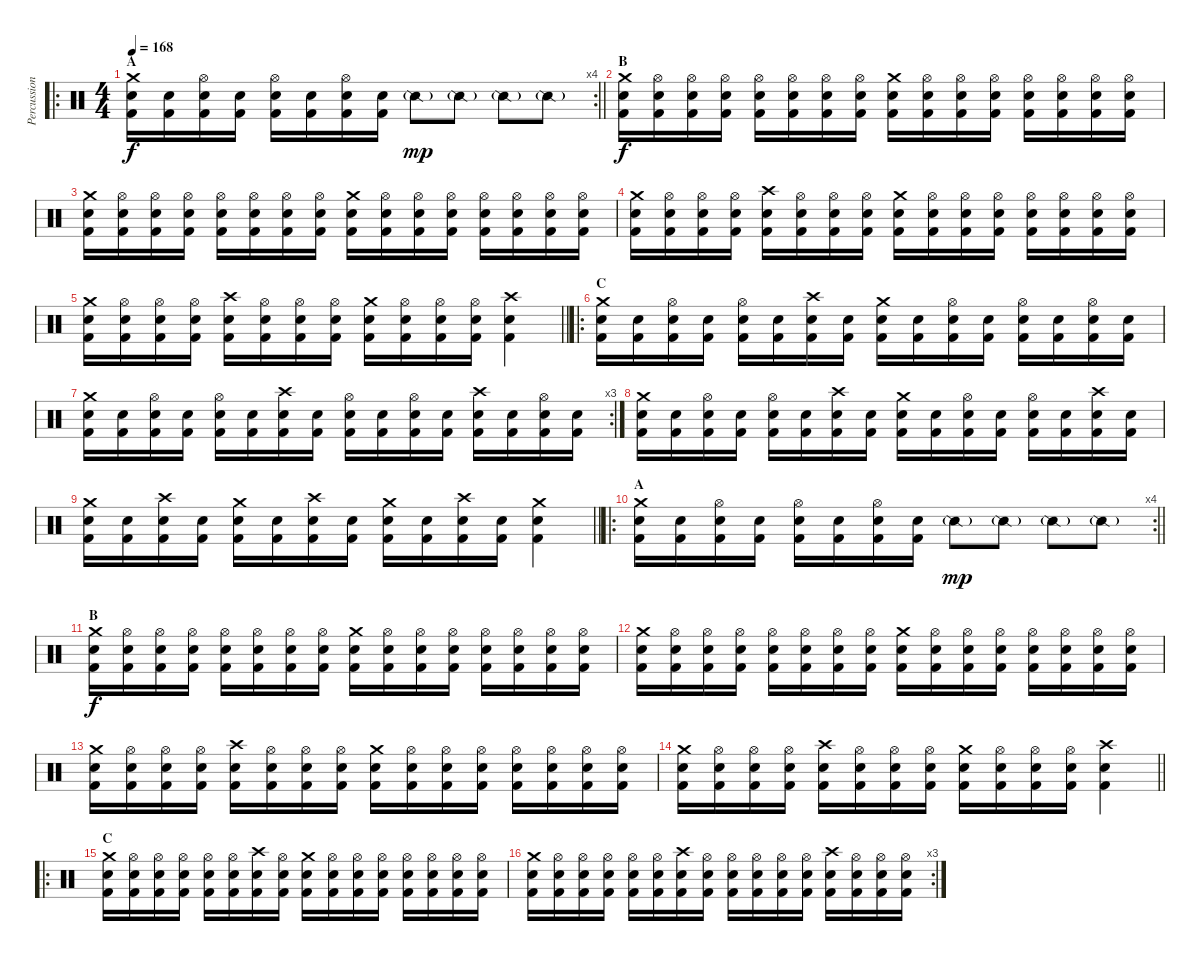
\track ("Percussion" "Percussion") {instrument percussion}
\staff {score}
\articulation defaults
\ro
\rc 4
\ts (4 4)
\section ("" "A")
\tempo 168
\clef neutral
\barLineRight lightlight
\ks c
("Kick (hit) 2" "Electric Snare (hit)" "Crash medium (hit)").16{dy f} ("Kick (hit) 2" "Electric Snare (hit)").16 ("Kick (hit) 2" "Electric Snare (hit)" "Hi-Hat (open)").16 ("Kick (hit) 2" "Electric Snare (hit)").16 ("Kick (hit) 2" "Electric Snare (hit)" "Hi-Hat (open)").16 ("Kick (hit) 2" "Electric Snare (hit)").16 ("Kick (hit) 2" "Electric Snare (hit)" "Hi-Hat (open)").16 ("Kick (hit) 2" "Electric Snare (hit)").16 "Snare (side stick) 2"{g}.8{dy mp} "Snare (side stick) 2"{g}.8 "Snare (side stick) 2"{g}.8 "Snare (side stick) 2"{g}.8 |
\section ("" "B")
("Kick (hit) 2" "Electric Snare (hit)" "Crash medium (hit)").16{dy f} ("Kick (hit) 2" "Electric Snare (hit)" "Hi-Hat (open)").16 ("Kick (hit) 2" "Electric Snare (hit)" "Hi-Hat (open)").16 ("Kick (hit) 2" "Electric Snare (hit)" "Hi-Hat (open)").16 ("Kick (hit) 2" "Electric Snare (hit)" "Hi-Hat (open)").16 ("Kick (hit) 2" "Electric Snare (hit)" "Hi-Hat (open)").16 ("Kick (hit) 2" "Electric Snare (hit)" "Hi-Hat (open)").16 ("Kick (hit) 2" "Electric Snare (hit)" "Hi-Hat (open)").16 ("Kick (hit) 2" "Electric Snare (hit)" "Crash medium (hit)").16 ("Kick (hit) 2" "Electric Snare (hit)" "Hi-Hat (open)").16 ("Kick (hit) 2" "Electric Snare (hit)" "Hi-Hat (open)").16 ("Kick (hit) 2" "Electric Snare (hit)" "Hi-Hat (open)").16 ("Kick (hit) 2" "Electric Snare (hit)" "Hi-Hat (open)").16 ("Kick (hit) 2" "Electric Snare (hit)" "Hi-Hat (open)").16 ("Kick (hit) 2" "Electric Snare (hit)" "Hi-Hat (open)").16 ("Kick (hit) 2" "Electric Snare (hit)" "Hi-Hat (open)").16 |
("Kick (hit) 2" "Electric Snare (hit)" "Crash medium (hit)").16 ("Kick (hit) 2" "Electric Snare (hit)" "Hi-Hat (open)").16 ("Kick (hit) 2" "Electric Snare (hit)" "Hi-Hat (open)").16 ("Kick (hit) 2" "Electric Snare (hit)" "Hi-Hat (open)").16 ("Kick (hit) 2" "Electric Snare (hit)" "Hi-Hat (open)").16 ("Kick (hit) 2" "Electric Snare (hit)" "Hi-Hat (open)").16 ("Kick (hit) 2" "Electric Snare (hit)" "Hi-Hat (open)").16 ("Kick (hit) 2" "Electric Snare (hit)" "Hi-Hat (open)").16 ("Kick (hit) 2" "Electric Snare (hit)" "Crash medium (hit)").16 ("Kick (hit) 2" "Electric Snare (hit)" "Hi-Hat (open)").16 ("Kick (hit) 2" "Electric Snare (hit)" "Hi-Hat (open)").16 ("Kick (hit) 2" "Electric Snare (hit)" "Hi-Hat (open)").16 ("Kick (hit) 2" "Electric Snare (hit)" "Hi-Hat (open)").16 ("Kick (hit) 2" "Electric Snare (hit)" "Hi-Hat (open)").16 ("Kick (hit) 2" "Electric Snare (hit)" "Hi-Hat (open)").16 ("Kick (hit) 2" "Electric Snare (hit)" "Hi-Hat (open)").16 |
("Kick (hit) 2" "Electric Snare (hit)" "Crash medium (hit)").16 ("Kick (hit) 2" "Electric Snare (hit)" "Hi-Hat (open)").16 ("Kick (hit) 2" "Electric Snare (hit)" "Hi-Hat (open)").16 ("Kick (hit) 2" "Electric Snare (hit)" "Hi-Hat (open)").16 ("Kick (hit) 2" "Electric Snare (hit)" "Crash high (hit)").16 ("Kick (hit) 2" "Electric Snare (hit)" "Hi-Hat (open)").16 ("Kick (hit) 2" "Electric Snare (hit)" "Hi-Hat (open)").16 ("Kick (hit) 2" "Electric Snare (hit)" "Hi-Hat (open)").16 ("Kick (hit) 2" "Electric Snare (hit)" "Crash medium (hit)").16 ("Kick (hit) 2" "Electric Snare (hit)" "Hi-Hat (open)").16 ("Kick (hit) 2" "Electric Snare (hit)" "Hi-Hat (open)").16 ("Kick (hit) 2" "Electric Snare (hit)" "Hi-Hat (open)").16 ("Kick (hit) 2" "Electric Snare (hit)" "Hi-Hat (open)").16 ("Kick (hit) 2" "Electric Snare (hit)" "Hi-Hat (open)").16 ("Kick (hit) 2" "Electric Snare (hit)" "Hi-Hat (open)").16 ("Kick (hit) 2" "Electric Snare (hit)" "Hi-Hat (open)").16 |
\barLineRight lightlight
("Kick (hit) 2" "Electric Snare (hit)" "Crash medium (hit)").16 ("Kick (hit) 2" "Electric Snare (hit)" "Hi-Hat (open)").16 ("Kick (hit) 2" "Electric Snare (hit)" "Hi-Hat (open)").16 ("Kick (hit) 2" "Electric Snare (hit)" "Hi-Hat (open)").16 ("Kick (hit) 2" "Electric Snare (hit)" "Crash high (hit)").16 ("Kick (hit) 2" "Electric Snare (hit)" "Hi-Hat (open)").16 ("Kick (hit) 2" "Electric Snare (hit)" "Hi-Hat (open)").16 ("Kick (hit) 2" "Electric Snare (hit)" "Hi-Hat (open)").16 ("Kick (hit) 2" "Electric Snare (hit)" "Crash medium (hit)").16 ("Kick (hit) 2" "Electric Snare (hit)" "Hi-Hat (open)").16 ("Kick (hit) 2" "Electric Snare (hit)" "Hi-Hat (open)").16 ("Kick (hit) 2" "Electric Snare (hit)" "Hi-Hat (open)").16 ("Kick (hit) 2" "Electric Snare (hit)" "Crash high (hit)").4 |
\ro
\section ("" "C")
("Kick (hit) 2" "Electric Snare (hit)" "Crash medium (hit)").16 ("Kick (hit) 2" "Electric Snare (hit)").16 ("Kick (hit) 2" "Electric Snare (hit)" "Hi-Hat (open)").16 ("Kick (hit) 2" "Electric Snare (hit)").16 ("Kick (hit) 2" "Electric Snare (hit)" "Hi-Hat (open)").16 ("Kick (hit) 2" "Electric Snare (hit)").16 ("Kick (hit) 2" "Electric Snare (hit)" "Crash high (hit)").16 ("Kick (hit) 2" "Electric Snare (hit)").16 ("Kick (hit) 2" "Electric Snare (hit)" "Crash medium (hit)").16 ("Kick (hit) 2" "Electric Snare (hit)").16 ("Kick (hit) 2" "Electric Snare (hit)" "Hi-Hat (open)").16 ("Kick (hit) 2" "Electric Snare (hit)").16 ("Kick (hit) 2" "Electric Snare (hit)" "Hi-Hat (open)").16 ("Kick (hit) 2" "Electric Snare (hit)").16 ("Kick (hit) 2" "Electric Snare (hit)" "Hi-Hat (open)").16 ("Kick (hit) 2" "Electric Snare (hit)").16 |
\rc 3
("Kick (hit) 2" "Electric Snare (hit)" "Crash medium (hit)").16 ("Kick (hit) 2" "Electric Snare (hit)").16 ("Kick (hit) 2" "Electric Snare (hit)" "Hi-Hat (open)").16 ("Kick (hit) 2" "Electric Snare (hit)").16 ("Kick (hit) 2" "Electric Snare (hit)" "Hi-Hat (open)").16 ("Kick (hit) 2" "Electric Snare (hit)").16 ("Kick (hit) 2" "Electric Snare (hit)" "Crash high (hit)").16 ("Kick (hit) 2" "Electric Snare (hit)").16 ("Kick (hit) 2" "Electric Snare (hit)" "Hi-Hat (open)").16 ("Kick (hit) 2" "Electric Snare (hit)").16 ("Kick (hit) 2" "Electric Snare (hit)" "Hi-Hat (open)").16 ("Kick (hit) 2" "Electric Snare (hit)").16 ("Kick (hit) 2" "Electric Snare (hit)" "Crash high (hit)").16 ("Kick (hit) 2" "Electric Snare (hit)").16 ("Kick (hit) 2" "Electric Snare (hit)" "Hi-Hat (open)").16 ("Kick (hit) 2" "Electric Snare (hit)").16 |
("Kick (hit) 2" "Electric Snare (hit)" "Crash medium (hit)").16 ("Kick (hit) 2" "Electric Snare (hit)").16 ("Kick (hit) 2" "Electric Snare (hit)" "Hi-Hat (open)").16 ("Kick (hit) 2" "Electric Snare (hit)").16 ("Kick (hit) 2" "Electric Snare (hit)" "Hi-Hat (open)").16 ("Kick (hit) 2" "Electric Snare (hit)").16 ("Kick (hit) 2" "Electric Snare (hit)" "Crash high (hit)").16 ("Kick (hit) 2" "Electric Snare (hit)").16 ("Kick (hit) 2" "Electric Snare (hit)" "Crash medium (hit)").16 ("Kick (hit) 2" "Electric Snare (hit)").16 ("Kick (hit) 2" "Electric Snare (hit)" "Hi-Hat (open)").16 ("Kick (hit) 2" "Electric Snare (hit)").16 ("Kick (hit) 2" "Electric Snare (hit)" "Hi-Hat (open)").16 ("Kick (hit) 2" "Electric Snare (hit)").16 ("Kick (hit) 2" "Electric Snare (hit)" "Crash high (hit)").16 ("Kick (hit) 2" "Electric Snare (hit)").16 |
\barLineRight lightlight
("Kick (hit) 2" "Electric Snare (hit)" "Crash medium (hit)").16 ("Kick (hit) 2" "Electric Snare (hit)").16 ("Kick (hit) 2" "Electric Snare (hit)" "Crash high (hit)").16 ("Kick (hit) 2" "Electric Snare (hit)").16 ("Kick (hit) 2" "Electric Snare (hit)" "Crash medium (hit)").16 ("Kick (hit) 2" "Electric Snare (hit)").16 ("Kick (hit) 2" "Electric Snare (hit)" "Crash high (hit)").16 ("Kick (hit) 2" "Electric Snare (hit)").16 ("Kick (hit) 2" "Electric Snare (hit)" "Crash medium (hit)").16 ("Kick (hit) 2" "Electric Snare (hit)").16 ("Kick (hit) 2" "Electric Snare (hit)" "Crash high (hit)").16 ("Kick (hit) 2" "Electric Snare (hit)").16 ("Kick (hit) 2" "Electric Snare (hit)" "Crash medium (hit)").4 |
\ro
\rc 4
\section ("" "A")
\barLineRight lightlight
("Kick (hit) 2" "Electric Snare (hit)" "Crash medium (hit)").16 ("Kick (hit) 2" "Electric Snare (hit)").16 ("Kick (hit) 2" "Electric Snare (hit)" "Hi-Hat (open)").16 ("Kick (hit) 2" "Electric Snare (hit)").16 ("Kick (hit) 2" "Electric Snare (hit)" "Hi-Hat (open)").16 ("Kick (hit) 2" "Electric Snare (hit)").16 ("Kick (hit) 2" "Electric Snare (hit)" "Hi-Hat (open)").16 ("Kick (hit) 2" "Electric Snare (hit)").16 "Snare (side stick) 2"{g}.8{dy mp} "Snare (side stick) 2"{g}.8 "Snare (side stick) 2"{g}.8 "Snare (side stick) 2"{g}.8 |
\section ("" "B")
("Kick (hit) 2" "Electric Snare (hit)" "Crash medium (hit)").16{dy f} ("Kick (hit) 2" "Electric Snare (hit)" "Hi-Hat (open)").16 ("Kick (hit) 2" "Electric Snare (hit)" "Hi-Hat (open)").16 ("Kick (hit) 2" "Electric Snare (hit)" "Hi-Hat (open)").16 ("Kick (hit) 2" "Electric Snare (hit)" "Hi-Hat (open)").16 ("Kick (hit) 2" "Electric Snare (hit)" "Hi-Hat (open)").16 ("Kick (hit) 2" "Electric Snare (hit)" "Hi-Hat (open)").16 ("Kick (hit) 2" "Electric Snare (hit)" "Hi-Hat (open)").16 ("Kick (hit) 2" "Electric Snare (hit)" "Crash medium (hit)").16 ("Kick (hit) 2" "Electric Snare (hit)" "Hi-Hat (open)").16 ("Kick (hit) 2" "Electric Snare (hit)" "Hi-Hat (open)").16 ("Kick (hit) 2" "Electric Snare (hit)" "Hi-Hat (open)").16 ("Kick (hit) 2" "Electric Snare (hit)" "Hi-Hat (open)").16 ("Kick (hit) 2" "Electric Snare (hit)" "Hi-Hat (open)").16 ("Kick (hit) 2" "Electric Snare (hit)" "Hi-Hat (open)").16 ("Kick (hit) 2" "Electric Snare (hit)" "Hi-Hat (open)").16 |
("Kick (hit) 2" "Electric Snare (hit)" "Crash medium (hit)").16 ("Kick (hit) 2" "Electric Snare (hit)" "Hi-Hat (open)").16 ("Kick (hit) 2" "Electric Snare (hit)" "Hi-Hat (open)").16 ("Kick (hit) 2" "Electric Snare (hit)" "Hi-Hat (open)").16 ("Kick (hit) 2" "Electric Snare (hit)" "Hi-Hat (open)").16 ("Kick (hit) 2" "Electric Snare (hit)" "Hi-Hat (open)").16 ("Kick (hit) 2" "Electric Snare (hit)" "Hi-Hat (open)").16 ("Kick (hit) 2" "Electric Snare (hit)" "Hi-Hat (open)").16 ("Kick (hit) 2" "Electric Snare (hit)" "Crash medium (hit)").16 ("Kick (hit) 2" "Electric Snare (hit)" "Hi-Hat (open)").16 ("Kick (hit) 2" "Electric Snare (hit)" "Hi-Hat (open)").16 ("Kick (hit) 2" "Electric Snare (hit)" "Hi-Hat (open)").16 ("Kick (hit) 2" "Electric Snare (hit)" "Hi-Hat (open)").16 ("Kick (hit) 2" "Electric Snare (hit)" "Hi-Hat (open)").16 ("Kick (hit) 2" "Electric Snare (hit)" "Hi-Hat (open)").16 ("Kick (hit) 2" "Electric Snare (hit)" "Hi-Hat (open)").16 |
("Kick (hit) 2" "Electric Snare (hit)" "Crash medium (hit)").16 ("Kick (hit) 2" "Electric Snare (hit)" "Hi-Hat (open)").16 ("Kick (hit) 2" "Electric Snare (hit)" "Hi-Hat (open)").16 ("Kick (hit) 2" "Electric Snare (hit)" "Hi-Hat (open)").16 ("Kick (hit) 2" "Electric Snare (hit)" "Crash high (hit)").16 ("Kick (hit) 2" "Electric Snare (hit)" "Hi-Hat (open)").16 ("Kick (hit) 2" "Electric Snare (hit)" "Hi-Hat (open)").16 ("Kick (hit) 2" "Electric Snare (hit)" "Hi-Hat (open)").16 ("Kick (hit) 2" "Electric Snare (hit)" "Crash medium (hit)").16 ("Kick (hit) 2" "Electric Snare (hit)" "Hi-Hat (open)").16 ("Kick (hit) 2" "Electric Snare (hit)" "Hi-Hat (open)").16 ("Kick (hit) 2" "Electric Snare (hit)" "Hi-Hat (open)").16 ("Kick (hit) 2" "Electric Snare (hit)" "Hi-Hat (open)").16 ("Kick (hit) 2" "Electric Snare (hit)" "Hi-Hat (open)").16 ("Kick (hit) 2" "Electric Snare (hit)" "Hi-Hat (open)").16 ("Kick (hit) 2" "Electric Snare (hit)" "Hi-Hat (open)").16 |
\barLineRight lightlight
("Kick (hit) 2" "Electric Snare (hit)" "Crash medium (hit)").16 ("Kick (hit) 2" "Electric Snare (hit)" "Hi-Hat (open)").16 ("Kick (hit) 2" "Electric Snare (hit)" "Hi-Hat (open)").16 ("Kick (hit) 2" "Electric Snare (hit)" "Hi-Hat (open)").16 ("Kick (hit) 2" "Electric Snare (hit)" "Crash high (hit)").16 ("Kick (hit) 2" "Electric Snare (hit)" "Hi-Hat (open)").16 ("Kick (hit) 2" "Electric Snare (hit)" "Hi-Hat (open)").16 ("Kick (hit) 2" "Electric Snare (hit)" "Hi-Hat (open)").16 ("Kick (hit) 2" "Electric Snare (hit)" "Crash medium (hit)").16 ("Kick (hit) 2" "Electric Snare (hit)" "Hi-Hat (open)").16 ("Kick (hit) 2" "Electric Snare (hit)" "Hi-Hat (open)").16 ("Kick (hit) 2" "Electric Snare (hit)" "Hi-Hat (open)").16 ("Kick (hit) 2" "Electric Snare (hit)" "Crash high (hit)").4 |
\ro
\section ("" "C")
("Kick (hit) 2" "Electric Snare (hit)" "Crash medium (hit)").16 ("Kick (hit) 2" "Electric Snare (hit)" "Hi-Hat (open)").16 ("Kick (hit) 2" "Electric Snare (hit)" "Hi-Hat (open)").16 ("Kick (hit) 2" "Electric Snare (hit)" "Hi-Hat (open)").16 ("Kick (hit) 2" "Electric Snare (hit)" "Hi-Hat (open)").16 ("Kick (hit) 2" "Electric Snare (hit)" "Hi-Hat (open)").16 ("Kick (hit) 2" "Electric Snare (hit)" "Crash high (hit)").16 ("Kick (hit) 2" "Electric Snare (hit)" "Hi-Hat (open)").16 ("Kick (hit) 2" "Electric Snare (hit)" "Crash medium (hit)").16 ("Kick (hit) 2" "Electric Snare (hit)" "Hi-Hat (open)").16 ("Kick (hit) 2" "Electric Snare (hit)" "Hi-Hat (open)").16 ("Kick (hit) 2" "Electric Snare (hit)" "Hi-Hat (open)").16 ("Kick (hit) 2" "Electric Snare (hit)" "Hi-Hat (open)").16 ("Kick (hit) 2" "Electric Snare (hit)" "Hi-Hat (open)").16 ("Kick (hit) 2" "Electric Snare (hit)" "Hi-Hat (open)").16 ("Kick (hit) 2" "Electric Snare (hit)" "Hi-Hat (open)").16 |
\rc 3
("Kick (hit) 2" "Electric Snare (hit)" "Crash medium (hit)").16 ("Kick (hit) 2" "Electric Snare (hit)" "Hi-Hat (open)").16 ("Kick (hit) 2" "Electric Snare (hit)" "Hi-Hat (open)").16 ("Kick (hit) 2" "Electric Snare (hit)" "Hi-Hat (open)").16 ("Kick (hit) 2" "Electric Snare (hit)" "Hi-Hat (open)").16 ("Kick (hit) 2" "Electric Snare (hit)" "Hi-Hat (open)").16 ("Kick (hit) 2" "Electric Snare (hit)" "Crash high (hit)").16 ("Kick (hit) 2" "Electric Snare (hit)" "Hi-Hat (open)").16 ("Kick (hit) 2" "Electric Snare (hit)" "Hi-Hat (open)").16 ("Kick (hit) 2" "Electric Snare (hit)" "Hi-Hat (open)").16 ("Kick (hit) 2" "Electric Snare (hit)" "Hi-Hat (open)").16 ("Kick (hit) 2" "Electric Snare (hit)" "Hi-Hat (open)").16 ("Kick (hit) 2" "Electric Snare (hit)" "Crash high (hit)").16 ("Kick (hit) 2" "Electric Snare (hit)" "Hi-Hat (open)").16 ("Kick (hit) 2" "Electric Snare (hit)" "Hi-Hat (open)").16 ("Kick (hit) 2" "Electric Snare (hit)" "Hi-Hat (open)").16
